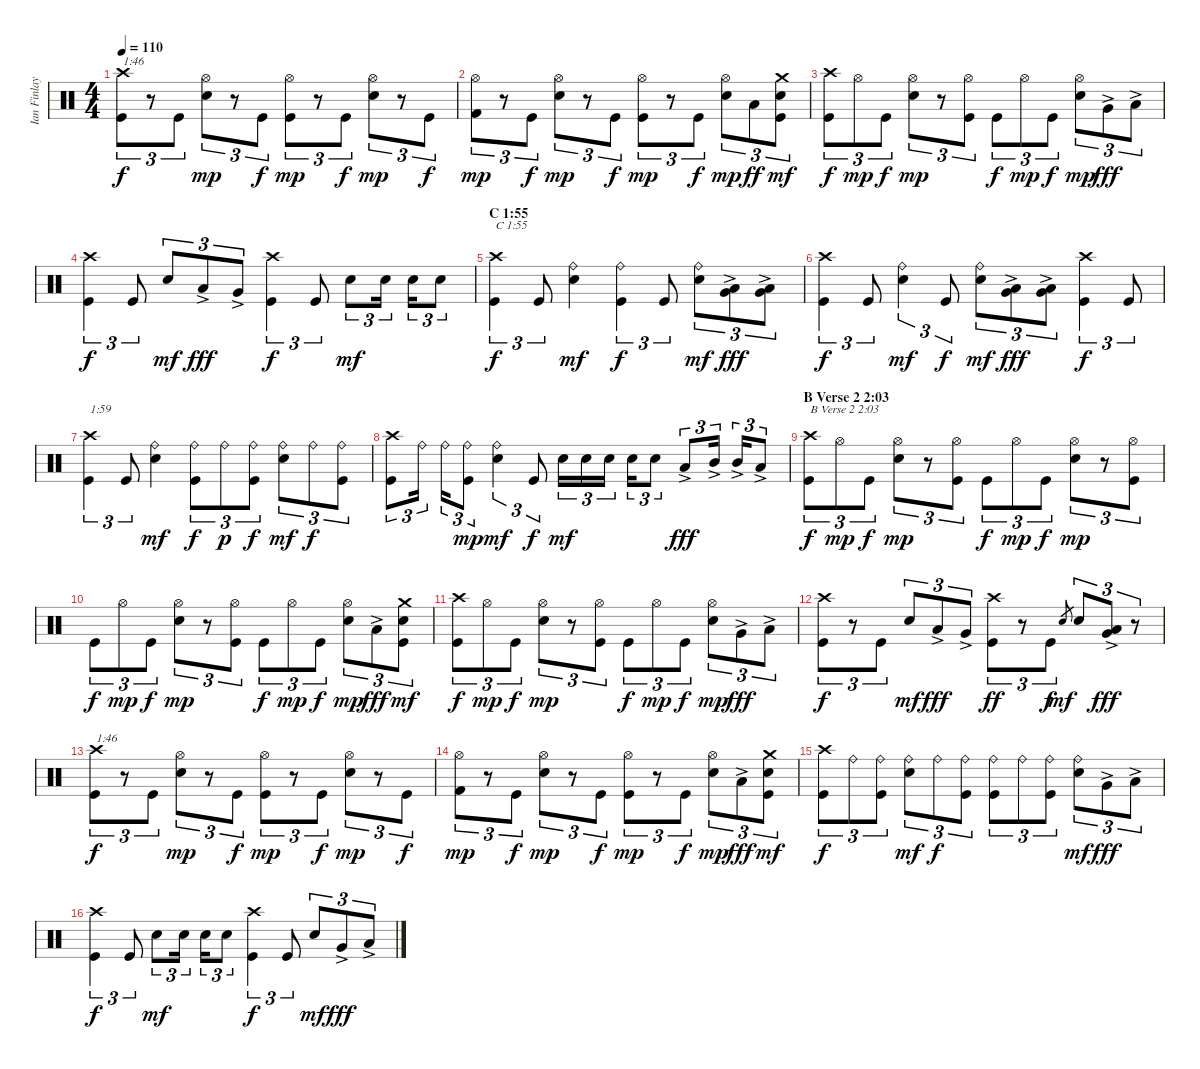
\track ("Ian Finlay" "Ian Finlay") {instrument percussion}
\staff {score}
\articulation defaults
\ts (4 4)
\tempo 110
\clef neutral
\ks c
("Kick (hit)" "Crash high (hit)").8{tu (3 2) txt "1:46" dy f} r.8{tu (3 2)} "Kick (hit)".8{tu (3 2)} ("Snare (hit) 2" "Hi-Hat (open)").8{tu (3 2) dy mp} r.8{tu (3 2)} "Kick (hit)".8{tu (3 2) dy f} ("Kick (hit)" "Hi-Hat (open)").8{tu (3 2) dy mp} r.8{tu (3 2)} "Kick (hit)".8{tu (3 2) dy f} ("Snare (hit) 2" "Hi-Hat (open)").8{tu (3 2) dy mp} r.8{tu (3 2)} "Kick (hit)".8{tu (3 2) dy f} |
("Kick (hit) 2" "Hi-Hat (open)").8{tu (3 2) dy mp} r.8{tu (3 2)} "Kick (hit)".8{tu (3 2) dy f} ("Snare (hit) 2" "Hi-Hat (open)").8{tu (3 2) dy mp} r.8{tu (3 2)} "Kick (hit)".8{tu (3 2) dy f} ("Kick (hit)" "Hi-Hat (open)").8{tu (3 2) dy mp} r.8{tu (3 2)} "Kick (hit)".8{tu (3 2) dy f} ("Snare (hit) 2" "Hi-Hat (open)").8{tu (3 2) dy mp} "Low Tom (hit)".8{tu (3 2) dy ff} ("Kick (hit)" "Snare (hit) 2" "Crash medium (hit)").8{tu (3 2) dy mf} |
("Kick (hit)" "Crash high (hit)").8{tu (3 2) dy f} "Hi-Hat (open)".8{tu (3 2) dy mp} "Kick (hit)".8{tu (3 2) dy f} ("Snare (hit) 2" "Hi-Hat (open)").8{tu (3 2) dy mp} r.8{tu (3 2)} ("Kick (hit)" "Hi-Hat (open)").8{tu (3 2)} "Kick (hit)".8{tu (3 2) dy f} "Hi-Hat (open)".8{tu (3 2) dy mp} "Kick (hit)".8{tu (3 2) dy f} ("Snare (hit) 2" "Hi-Hat (open)").8{tu (3 2) dy mp} "Very Low Tom (hit)"{ac}.8{tu (3 2) dy fff} "Low Tom (hit)"{ac}.8{tu (3 2)} |
("Kick (hit)" "Crash high (hit)").4{tu (3 2) dy f} "Kick (hit)".8{tu (3 2)} "Snare (hit) 2".8{tu (3 2) dy mf} "Low Tom (hit)"{ac}.8{tu (3 2) dy fff} "Very Low Tom (hit)"{ac}.8{tu (3 2)} ("Kick (hit)" "Crash high (hit)").4{tu (3 2) dy f} "Kick (hit)".8{tu (3 2)} "Snare (hit) 2".8{tu (3 2) dy mf} "Snare (hit) 2".16{tu (3 2)} "Snare (hit) 2".16{tu (3 2)} "Snare (hit) 2".8{tu (3 2)} |
\section ("" "C 1:55")
("Kick (hit)" "Crash high (hit)").4{tu (3 2) txt "C 1:55" dy f} "Kick (hit)".8{tu (3 2)} ("Snare (hit) 2" "Ride (bell)").4{dy mf} ("Kick (hit)" "Ride (bell)").4{tu (3 2) dy f} "Kick (hit)".8{tu (3 2)} ("Snare (hit) 2" "Ride (bell)").8{tu (3 2) dy mf} ("Very Low Tom (hit)"{ac} "Low Tom (hit)"{ac}).8{tu (3 2) dy fff} ("Very Low Tom (hit)"{ac} "Low Tom (hit)"{ac}).8{tu (3 2)} |
("Kick (hit)" "Crash high (hit)").4{tu (3 2) dy f} "Kick (hit)".8{tu (3 2)} ("Snare (hit) 2" "Ride (bell)").4{tu (3 2) dy mf} "Kick (hit)".8{tu (3 2) dy f} ("Snare (hit) 2" "Ride (bell)").8{tu (3 2) dy mf} ("Very Low Tom (hit)"{ac} "Low Tom (hit)"{ac}).8{tu (3 2) dy fff} ("Very Low Tom (hit)"{ac} "Low Tom (hit)"{ac}).8{tu (3 2)} ("Kick (hit)" "Crash high (hit)").4{tu (3 2) dy f} "Kick (hit)".8{tu (3 2)} |
("Kick (hit)" "Crash high (hit)").4{tu (3 2) txt "1:59"} "Kick (hit)".8{tu (3 2)} ("Snare (hit) 2" "Ride (bell)").4{dy mf} ("Kick (hit)" "Ride (bell)").8{tu (3 2) dy f} "Ride (bell)".8{tu (3 2) dy p} ("Kick (hit)" "Ride (bell)").8{tu (3 2) dy f} ("Snare (hit) 2" "Ride (bell)").8{tu (3 2) dy mf} "Ride (bell)".8{tu (3 2) dy f} ("Kick (hit)" "Ride (bell)").8{tu (3 2)} |
("Kick (hit)" "Crash high (hit)").8{tu (3 2)} "Ride (bell)".16{tu (3 2)} "Ride (bell)".16{tu (3 2)} ("Kick (hit)" "Ride (bell)").8{tu (3 2) dy mp} ("Snare (hit) 2" "Ride (bell)").4{tu (3 2) dy mf} "Kick (hit)".8{tu (3 2) dy f} "Snare (hit) 2".16{tu (3 2) dy mf} "Snare (hit) 2".16{tu (3 2)} "Snare (hit) 2".16{tu (3 2)} "Snare (hit) 2".16{tu (3 2)} "Snare (hit) 2".8{tu (3 2)} "Low Tom (hit)"{ac}.8{tu (3 2) dy fff} "Mid Tom (hit)"{ac}.16{tu (3 2)} "Mid Tom (hit)"{ac}.16{tu (3 2)} "Low Tom (hit)"{ac}.8{tu (3 2)} |
\section ("" "B Verse 2 2:03")
("Kick (hit)" "Crash high (hit)").8{tu (3 2) txt "B Verse 2 2:03" dy f} "Hi-Hat (open)".8{tu (3 2) dy mp} "Kick (hit)".8{tu (3 2) dy f} ("Snare (hit) 2" "Hi-Hat (open)").8{tu (3 2) dy mp} r.8{tu (3 2)} ("Kick (hit)" "Hi-Hat (open)").8{tu (3 2)} "Kick (hit)".8{tu (3 2) dy f} "Hi-Hat (open)".8{tu (3 2) dy mp} "Kick (hit)".8{tu (3 2) dy f} ("Snare (hit) 2" "Hi-Hat (open)").8{tu (3 2) dy mp} r.8{tu (3 2)} ("Kick (hit)" "Hi-Hat (open)").8{tu (3 2)} |
"Kick (hit)".8{tu (3 2) dy f} "Hi-Hat (open)".8{tu (3 2) dy mp} "Kick (hit)".8{tu (3 2) dy f} ("Snare (hit) 2" "Hi-Hat (open)").8{tu (3 2) dy mp} r.8{tu (3 2)} ("Kick (hit)" "Hi-Hat (open)").8{tu (3 2)} "Kick (hit)".8{tu (3 2) dy f} "Hi-Hat (open)".8{tu (3 2) dy mp} "Kick (hit)".8{tu (3 2) dy f} ("Snare (hit) 2" "Hi-Hat (open)").8{tu (3 2) dy mp} "Low Tom (hit)"{ac}.8{tu (3 2) dy fff} ("Kick (hit)" "Snare (hit) 2" "Crash medium (hit)").8{tu (3 2) dy mf} |
("Kick (hit)" "Crash high (hit)").8{tu (3 2) dy f} "Hi-Hat (open)".8{tu (3 2) dy mp} "Kick (hit)".8{tu (3 2) dy f} ("Snare (hit) 2" "Hi-Hat (open)").8{tu (3 2) dy mp} r.8{tu (3 2)} ("Kick (hit)" "Hi-Hat (open)").8{tu (3 2)} "Kick (hit)".8{tu (3 2) dy f} "Hi-Hat (open)".8{tu (3 2) dy mp} "Kick (hit)".8{tu (3 2) dy f} ("Snare (hit) 2" "Hi-Hat (open)").8{tu (3 2) dy mp} "Very Low Tom (hit)"{ac}.8{tu (3 2) dy fff} "Low Tom (hit)"{ac}.8{tu (3 2)} |
("Kick (hit)" "Crash high (hit)").8{tu (3 2) dy f} r.8{tu (3 2)} "Kick (hit)".8{tu (3 2)} "Snare (hit) 2".8{tu (3 2) dy mf} "Low Tom (hit)"{ac}.8{tu (3 2) dy fff} "Very Low Tom (hit)"{ac}.8{tu (3 2)} ("Kick (hit)" "Crash high (hit)").8{tu (3 2) dy ff} r.8{tu (3 2)} "Kick (hit)".8{tu (3 2) dy f} "Snare (hit) 2".8{gr dy mf} "Snare (hit) 2".8{tu (3 2)} ("Low Tom (hit)"{ac} "Very Low Tom (hit)"{ac}).8{tu (3 2) dy fff} r.8{tu (3 2)} |
("Kick (hit)" "Crash high (hit)").8{tu (3 2) txt "1:46" dy f} r.8{tu (3 2)} "Kick (hit)".8{tu (3 2)} ("Snare (hit) 2" "Hi-Hat (open)").8{tu (3 2) dy mp} r.8{tu (3 2)} "Kick (hit)".8{tu (3 2) dy f} ("Kick (hit)" "Hi-Hat (open)").8{tu (3 2) dy mp} r.8{tu (3 2)} "Kick (hit)".8{tu (3 2) dy f} ("Snare (hit) 2" "Hi-Hat (open)").8{tu (3 2) dy mp} r.8{tu (3 2)} "Kick (hit)".8{tu (3 2) dy f} |
("Kick (hit) 2" "Hi-Hat (open)").8{tu (3 2) dy mp} r.8{tu (3 2)} "Kick (hit)".8{tu (3 2) dy f} ("Snare (hit) 2" "Hi-Hat (open)").8{tu (3 2) dy mp} r.8{tu (3 2)} "Kick (hit)".8{tu (3 2) dy f} ("Kick (hit)" "Hi-Hat (open)").8{tu (3 2) dy mp} r.8{tu (3 2)} "Kick (hit)".8{tu (3 2) dy f} ("Snare (hit) 2" "Hi-Hat (open)").8{tu (3 2) dy mp} "Low Tom (hit)"{ac}.8{tu (3 2) dy fff} ("Kick (hit)" "Snare (hit) 2" "Crash medium (hit)").8{tu (3 2) dy mf} |
("Kick (hit)" "Crash high (hit)").8{tu (3 2) dy f} "Ride (bell)".8{tu (3 2)} ("Kick (hit)" "Ride (bell)").8{tu (3 2)} ("Snare (hit) 2" "Ride (bell)").8{tu (3 2) dy mf} "Ride (bell)".8{tu (3 2) dy f} ("Kick (hit)" "Ride (bell)").8{tu (3 2)} ("Kick (hit)" "Ride (bell)").8{tu (3 2)} "Ride (bell)".8{tu (3 2)} ("Kick (hit)" "Ride (bell)").8{tu (3 2)} ("Snare (hit) 2" "Ride (bell)").8{tu (3 2) dy mf} "Very Low Tom (hit)"{ac}.8{tu (3 2) dy fff} "Low Tom (hit)"{ac}.8{tu (3 2)} |
("Kick (hit)" "Crash high (hit)").4{tu (3 2) dy f} "Kick (hit)".8{tu (3 2)} "Snare (hit) 2".8{tu (3 2) dy mf} "Snare (hit) 2".16{tu (3 2)} "Snare (hit) 2".16{tu (3 2)} "Snare (hit) 2".8{tu (3 2)} ("Kick (hit)" "Crash high (hit)").4{tu (3 2) dy f} "Kick (hit)".8{tu (3 2)} "Snare (hit) 2".8{tu (3 2) dy mf} "Very Low Tom (hit)"{ac}.8{tu (3 2) dy fff} "Low Tom (hit)"{ac}.8{tu (3 2)}
